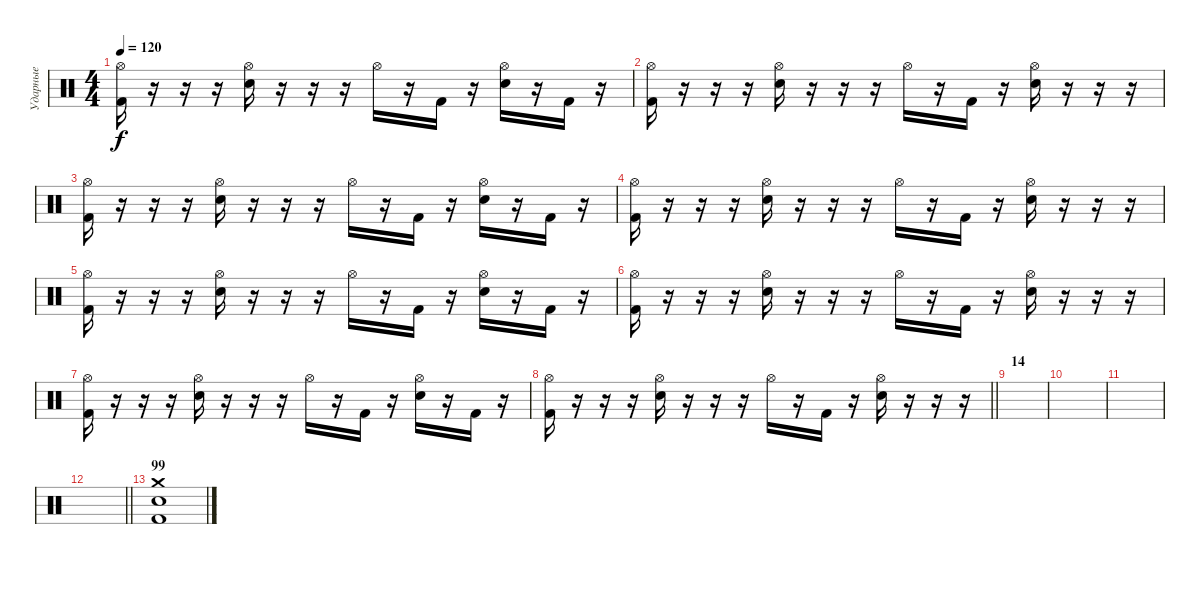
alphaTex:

\track ("Ударные" "Ударные") {instrument percussion}
\staff {score}
\articulation defaults
\ts (4 4)
\tempo 120
\clef neutral
\ks c
("Hi-Hat (open)" "Kick (hit) 2").16{dy f} r.16 r.16 r.16 ("Hi-Hat (open)" "Snare (hit) 2").16 r.16 r.16 r.16 "Hi-Hat (open)".16 r.16 "Kick (hit) 2".16 r.16 ("Hi-Hat (open)" "Snare (hit) 2").16 r.16 "Kick (hit) 2".16 r.16 |
("Hi-Hat (open)" "Kick (hit) 2").16 r.16 r.16 r.16 ("Hi-Hat (open)" "Snare (hit) 2").16 r.16 r.16 r.16 "Hi-Hat (open)".16 r.16 "Kick (hit) 2".16 r.16 ("Hi-Hat (open)" "Snare (hit) 2").16 r.16 r.16 r.16 |
("Hi-Hat (open)" "Kick (hit) 2").16 r.16 r.16 r.16 ("Hi-Hat (open)" "Snare (hit) 2").16 r.16 r.16 r.16 "Hi-Hat (open)".16 r.16 "Kick (hit) 2".16 r.16 ("Hi-Hat (open)" "Snare (hit) 2").16 r.16 "Kick (hit) 2".16 r.16 |
("Hi-Hat (open)" "Kick (hit) 2").16 r.16 r.16 r.16 ("Hi-Hat (open)" "Snare (hit) 2").16 r.16 r.16 r.16 "Hi-Hat (open)".16 r.16 "Kick (hit) 2".16 r.16 ("Hi-Hat (open)" "Snare (hit) 2").16 r.16 r.16 r.16 |
("Hi-Hat (open)" "Kick (hit) 2").16 r.16 r.16 r.16 ("Hi-Hat (open)" "Snare (hit) 2").16 r.16 r.16 r.16 "Hi-Hat (open)".16 r.16 "Kick (hit) 2".16 r.16 ("Hi-Hat (open)" "Snare (hit) 2").16 r.16 "Kick (hit) 2".16 r.16 |
("Hi-Hat (open)" "Kick (hit) 2").16 r.16 r.16 r.16 ("Hi-Hat (open)" "Snare (hit) 2").16 r.16 r.16 r.16 "Hi-Hat (open)".16 r.16 "Kick (hit) 2".16 r.16 ("Hi-Hat (open)" "Snare (hit) 2").16 r.16 r.16 r.16 |
("Hi-Hat (open)" "Kick (hit) 2").16 r.16 r.16 r.16 ("Hi-Hat (open)" "Snare (hit) 2").16 r.16 r.16 r.16 "Hi-Hat (open)".16 r.16 "Kick (hit) 2".16 r.16 ("Hi-Hat (open)" "Snare (hit) 2").16 r.16 "Kick (hit) 2".16 r.16 |
\barLineRight lightlight
("Hi-Hat (open)" "Kick (hit) 2").16 r.16 r.16 r.16 ("Hi-Hat (open)" "Snare (hit) 2").16 r.16 r.16 r.16 "Hi-Hat (open)".16 r.16 "Kick (hit) 2".16 r.16 ("Hi-Hat (open)" "Snare (hit) 2").16 r.16 r.16 r.16 |
\section ("" "14")
|
|
|
\barLineRight lightlight
|
\section ("" "99")
("Crash medium (hit)" "Snare (hit) 2" "Kick (hit) 2").1
